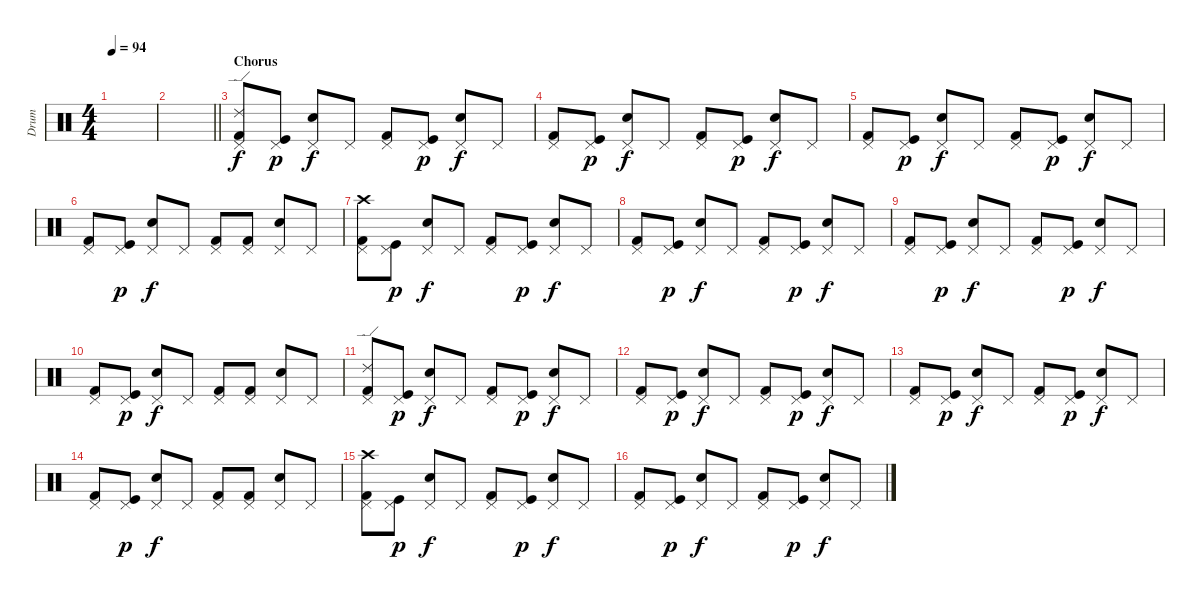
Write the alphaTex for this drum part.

\track ("Drum" "Drum") {instrument percussion}
\staff {score}
\articulation defaults
\ts (4 4)
\tempo 94
\clef neutral
\ks c
|
\barLineRight lightlight
|
\section ("" "Chorus")
("Ride (edge) 2" "Kick (hit) 2" "Pedal Hi-Hat (hit)").8 ("Kick (hit)" "Pedal Hi-Hat (hit)").8{dy p} ("Snare (hit) 2" "Pedal Hi-Hat (hit)").8{dy f} "Pedal Hi-Hat (hit)".8 ("Kick (hit) 2" "Pedal Hi-Hat (hit)").8 ("Kick (hit)" "Pedal Hi-Hat (hit)").8{dy p} ("Snare (hit) 2" "Pedal Hi-Hat (hit)").8{dy f} "Pedal Hi-Hat (hit)".8 |
("Kick (hit) 2" "Pedal Hi-Hat (hit)").8 ("Kick (hit)" "Pedal Hi-Hat (hit)").8{dy p} ("Snare (hit) 2" "Pedal Hi-Hat (hit)").8{dy f} "Pedal Hi-Hat (hit)".8 ("Kick (hit) 2" "Pedal Hi-Hat (hit)").8 ("Kick (hit)" "Pedal Hi-Hat (hit)").8{dy p} ("Snare (hit) 2" "Pedal Hi-Hat (hit)").8{dy f} "Pedal Hi-Hat (hit)".8 |
("Kick (hit) 2" "Pedal Hi-Hat (hit)").8 ("Kick (hit)" "Pedal Hi-Hat (hit)").8{dy p} ("Snare (hit) 2" "Pedal Hi-Hat (hit)").8{dy f} "Pedal Hi-Hat (hit)".8 ("Kick (hit) 2" "Pedal Hi-Hat (hit)").8 ("Kick (hit)" "Pedal Hi-Hat (hit)").8{dy p} ("Snare (hit) 2" "Pedal Hi-Hat (hit)").8{dy f} "Pedal Hi-Hat (hit)".8 |
("Kick (hit) 2" "Pedal Hi-Hat (hit)").8 ("Kick (hit)" "Pedal Hi-Hat (hit)").8{dy p} ("Snare (hit) 2" "Pedal Hi-Hat (hit)").8{dy f} "Pedal Hi-Hat (hit)".8 ("Kick (hit) 2" "Pedal Hi-Hat (hit)").8 ("Kick (hit) 2" "Pedal Hi-Hat (hit)").8 ("Snare (hit) 2" "Pedal Hi-Hat (hit)").8 "Pedal Hi-Hat (hit)".8 |
("Crash high (hit)" "Kick (hit) 2" "Pedal Hi-Hat (hit)").8 ("Kick (hit)" "Pedal Hi-Hat (hit)").8{dy p} ("Snare (hit) 2" "Pedal Hi-Hat (hit)").8{dy f} "Pedal Hi-Hat (hit)".8 ("Kick (hit) 2" "Pedal Hi-Hat (hit)").8 ("Kick (hit)" "Pedal Hi-Hat (hit)").8{dy p} ("Snare (hit) 2" "Pedal Hi-Hat (hit)").8{dy f} "Pedal Hi-Hat (hit)".8 |
("Kick (hit) 2" "Pedal Hi-Hat (hit)").8 ("Kick (hit)" "Pedal Hi-Hat (hit)").8{dy p} ("Snare (hit) 2" "Pedal Hi-Hat (hit)").8{dy f} "Pedal Hi-Hat (hit)".8 ("Kick (hit) 2" "Pedal Hi-Hat (hit)").8 ("Kick (hit)" "Pedal Hi-Hat (hit)").8{dy p} ("Snare (hit) 2" "Pedal Hi-Hat (hit)").8{dy f} "Pedal Hi-Hat (hit)".8 |
("Kick (hit) 2" "Pedal Hi-Hat (hit)").8 ("Kick (hit)" "Pedal Hi-Hat (hit)").8{dy p} ("Snare (hit) 2" "Pedal Hi-Hat (hit)").8{dy f} "Pedal Hi-Hat (hit)".8 ("Kick (hit) 2" "Pedal Hi-Hat (hit)").8 ("Kick (hit)" "Pedal Hi-Hat (hit)").8{dy p} ("Snare (hit) 2" "Pedal Hi-Hat (hit)").8{dy f} "Pedal Hi-Hat (hit)".8 |
("Kick (hit) 2" "Pedal Hi-Hat (hit)").8 ("Kick (hit)" "Pedal Hi-Hat (hit)").8{dy p} ("Snare (hit) 2" "Pedal Hi-Hat (hit)").8{dy f} "Pedal Hi-Hat (hit)".8 ("Kick (hit) 2" "Pedal Hi-Hat (hit)").8 ("Kick (hit) 2" "Pedal Hi-Hat (hit)").8 ("Snare (hit) 2" "Pedal Hi-Hat (hit)").8 "Pedal Hi-Hat (hit)".8 |
("Ride (edge) 2" "Kick (hit) 2" "Pedal Hi-Hat (hit)").8 ("Kick (hit)" "Pedal Hi-Hat (hit)").8{dy p} ("Snare (hit) 2" "Pedal Hi-Hat (hit)").8{dy f} "Pedal Hi-Hat (hit)".8 ("Kick (hit) 2" "Pedal Hi-Hat (hit)").8 ("Kick (hit)" "Pedal Hi-Hat (hit)").8{dy p} ("Snare (hit) 2" "Pedal Hi-Hat (hit)").8{dy f} "Pedal Hi-Hat (hit)".8 |
("Kick (hit) 2" "Pedal Hi-Hat (hit)").8 ("Kick (hit)" "Pedal Hi-Hat (hit)").8{dy p} ("Snare (hit) 2" "Pedal Hi-Hat (hit)").8{dy f} "Pedal Hi-Hat (hit)".8 ("Kick (hit) 2" "Pedal Hi-Hat (hit)").8 ("Kick (hit)" "Pedal Hi-Hat (hit)").8{dy p} ("Snare (hit) 2" "Pedal Hi-Hat (hit)").8{dy f} "Pedal Hi-Hat (hit)".8 |
("Kick (hit) 2" "Pedal Hi-Hat (hit)").8 ("Kick (hit)" "Pedal Hi-Hat (hit)").8{dy p} ("Snare (hit) 2" "Pedal Hi-Hat (hit)").8{dy f} "Pedal Hi-Hat (hit)".8 ("Kick (hit) 2" "Pedal Hi-Hat (hit)").8 ("Kick (hit)" "Pedal Hi-Hat (hit)").8{dy p} ("Snare (hit) 2" "Pedal Hi-Hat (hit)").8{dy f} "Pedal Hi-Hat (hit)".8 |
("Kick (hit) 2" "Pedal Hi-Hat (hit)").8 ("Kick (hit)" "Pedal Hi-Hat (hit)").8{dy p} ("Snare (hit) 2" "Pedal Hi-Hat (hit)").8{dy f} "Pedal Hi-Hat (hit)".8 ("Kick (hit) 2" "Pedal Hi-Hat (hit)").8 ("Kick (hit) 2" "Pedal Hi-Hat (hit)").8 ("Snare (hit) 2" "Pedal Hi-Hat (hit)").8 "Pedal Hi-Hat (hit)".8 |
("Crash high (hit)" "Kick (hit) 2" "Pedal Hi-Hat (hit)").8 ("Kick (hit)" "Pedal Hi-Hat (hit)").8{dy p} ("Snare (hit) 2" "Pedal Hi-Hat (hit)").8{dy f} "Pedal Hi-Hat (hit)".8 ("Kick (hit) 2" "Pedal Hi-Hat (hit)").8 ("Kick (hit)" "Pedal Hi-Hat (hit)").8{dy p} ("Snare (hit) 2" "Pedal Hi-Hat (hit)").8{dy f} "Pedal Hi-Hat (hit)".8 |
("Kick (hit) 2" "Pedal Hi-Hat (hit)").8 ("Kick (hit)" "Pedal Hi-Hat (hit)").8{dy p} ("Snare (hit) 2" "Pedal Hi-Hat (hit)").8{dy f} "Pedal Hi-Hat (hit)".8 ("Kick (hit) 2" "Pedal Hi-Hat (hit)").8 ("Kick (hit)" "Pedal Hi-Hat (hit)").8{dy p} ("Snare (hit) 2" "Pedal Hi-Hat (hit)").8{dy f} "Pedal Hi-Hat (hit)".8
